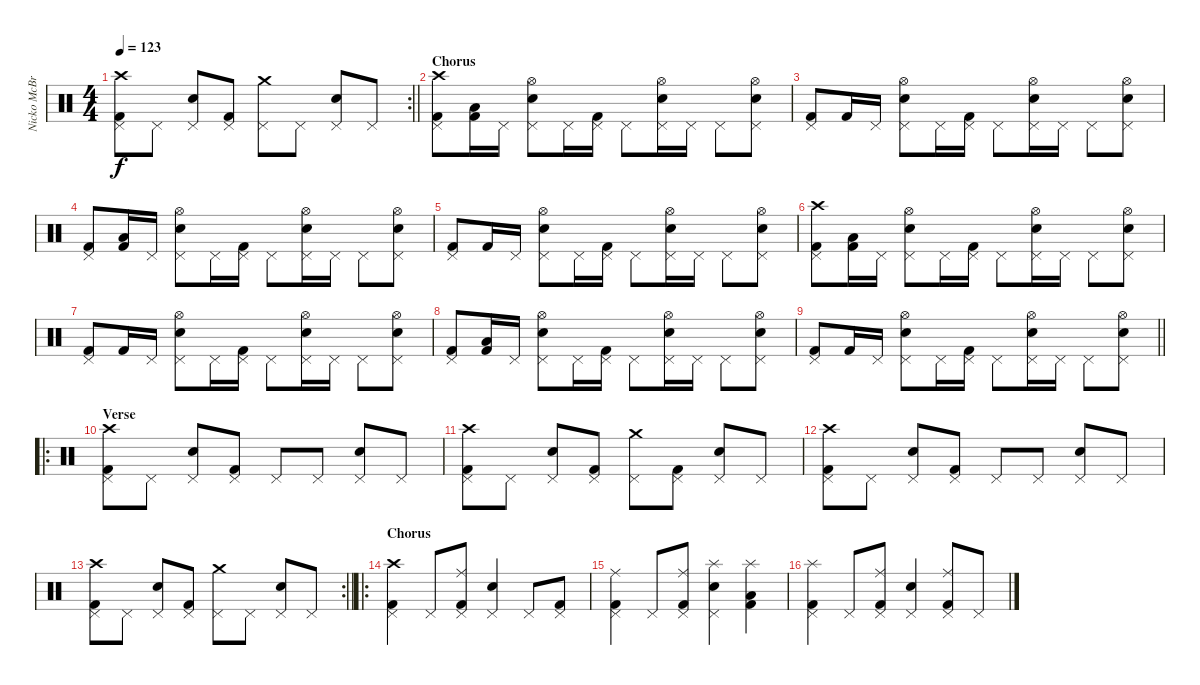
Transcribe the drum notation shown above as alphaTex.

\track ("Nicko McBrain" "Nicko McBr") {instrument percussion}
\staff {score}
\articulation defaults
\rc 2
\ts (4 4)
\tempo 123
\clef neutral
\barLineRight lightlight
\ks c
("Kick (hit) 2" "Pedal Hi-Hat (hit)" "Crash high (hit)").8{dy f} "Pedal Hi-Hat (hit)".8 ("Snare (hit) 2" "Pedal Hi-Hat (hit)").8 ("Kick (hit) 2" "Pedal Hi-Hat (hit)").8 ("Pedal Hi-Hat (hit)" "Crash medium (hit)").8 "Pedal Hi-Hat (hit)".8 ("Snare (hit) 2" "Pedal Hi-Hat (hit)").8 "Pedal Hi-Hat (hit)".8 |
\section ("" "Chorus")
("Kick (hit) 2" "Pedal Hi-Hat (hit)" "Crash high (hit)").8 ("Kick (hit) 2" "Low Tom (hit)").16 "Pedal Hi-Hat (hit)".16 ("Snare (hit) 2" "Pedal Hi-Hat (hit)" "Hi-Hat (open)").8 "Pedal Hi-Hat (hit)".16 ("Kick (hit) 2" "Pedal Hi-Hat (hit)").16 "Pedal Hi-Hat (hit)".8 ("Snare (hit) 2" "Pedal Hi-Hat (hit)" "Hi-Hat (open)").16 "Pedal Hi-Hat (hit)".16 "Pedal Hi-Hat (hit)".8 ("Snare (hit) 2" "Pedal Hi-Hat (hit)" "Hi-Hat (open)").8 |
("Kick (hit) 2" "Pedal Hi-Hat (hit)").8 "Kick (hit) 2".16 "Pedal Hi-Hat (hit)".16 ("Snare (hit) 2" "Pedal Hi-Hat (hit)" "Hi-Hat (open)").8 "Pedal Hi-Hat (hit)".16 ("Kick (hit) 2" "Pedal Hi-Hat (hit)").16 "Pedal Hi-Hat (hit)".8 ("Snare (hit) 2" "Pedal Hi-Hat (hit)" "Hi-Hat (open)").16 "Pedal Hi-Hat (hit)".16 "Pedal Hi-Hat (hit)".8 ("Snare (hit) 2" "Pedal Hi-Hat (hit)" "Hi-Hat (open)").8 |
("Kick (hit) 2" "Pedal Hi-Hat (hit)").8 ("Kick (hit) 2" "Low Tom (hit)").16 "Pedal Hi-Hat (hit)".16 ("Snare (hit) 2" "Pedal Hi-Hat (hit)" "Hi-Hat (open)").8 "Pedal Hi-Hat (hit)".16 ("Kick (hit) 2" "Pedal Hi-Hat (hit)").16 "Pedal Hi-Hat (hit)".8 ("Snare (hit) 2" "Pedal Hi-Hat (hit)" "Hi-Hat (open)").16 "Pedal Hi-Hat (hit)".16 "Pedal Hi-Hat (hit)".8 ("Snare (hit) 2" "Pedal Hi-Hat (hit)" "Hi-Hat (open)").8 |
("Kick (hit) 2" "Pedal Hi-Hat (hit)").8 "Kick (hit) 2".16 "Pedal Hi-Hat (hit)".16 ("Snare (hit) 2" "Pedal Hi-Hat (hit)" "Hi-Hat (open)").8 "Pedal Hi-Hat (hit)".16 ("Kick (hit) 2" "Pedal Hi-Hat (hit)").16 "Pedal Hi-Hat (hit)".8 ("Snare (hit) 2" "Pedal Hi-Hat (hit)" "Hi-Hat (open)").16 "Pedal Hi-Hat (hit)".16 "Pedal Hi-Hat (hit)".8 ("Snare (hit) 2" "Pedal Hi-Hat (hit)" "Hi-Hat (open)").8 |
("Kick (hit) 2" "Pedal Hi-Hat (hit)" "Crash high (hit)").8 ("Kick (hit) 2" "Low Tom (hit)").16 "Pedal Hi-Hat (hit)".16 ("Snare (hit) 2" "Pedal Hi-Hat (hit)" "Hi-Hat (open)").8 "Pedal Hi-Hat (hit)".16 ("Kick (hit) 2" "Pedal Hi-Hat (hit)").16 "Pedal Hi-Hat (hit)".8 ("Snare (hit) 2" "Pedal Hi-Hat (hit)" "Hi-Hat (open)").16 "Pedal Hi-Hat (hit)".16 "Pedal Hi-Hat (hit)".8 ("Snare (hit) 2" "Pedal Hi-Hat (hit)" "Hi-Hat (open)").8 |
("Kick (hit) 2" "Pedal Hi-Hat (hit)").8 "Kick (hit) 2".16 "Pedal Hi-Hat (hit)".16 ("Snare (hit) 2" "Pedal Hi-Hat (hit)" "Hi-Hat (open)").8 "Pedal Hi-Hat (hit)".16 ("Kick (hit) 2" "Pedal Hi-Hat (hit)").16 "Pedal Hi-Hat (hit)".8 ("Snare (hit) 2" "Pedal Hi-Hat (hit)" "Hi-Hat (open)").16 "Pedal Hi-Hat (hit)".16 "Pedal Hi-Hat (hit)".8 ("Snare (hit) 2" "Pedal Hi-Hat (hit)" "Hi-Hat (open)").8 |
("Kick (hit) 2" "Pedal Hi-Hat (hit)").8 ("Kick (hit) 2" "Low Tom (hit)").16 "Pedal Hi-Hat (hit)".16 ("Snare (hit) 2" "Pedal Hi-Hat (hit)" "Hi-Hat (open)").8 "Pedal Hi-Hat (hit)".16 ("Kick (hit) 2" "Pedal Hi-Hat (hit)").16 "Pedal Hi-Hat (hit)".8 ("Snare (hit) 2" "Pedal Hi-Hat (hit)" "Hi-Hat (open)").16 "Pedal Hi-Hat (hit)".16 "Pedal Hi-Hat (hit)".8 ("Snare (hit) 2" "Pedal Hi-Hat (hit)" "Hi-Hat (open)").8 |
\barLineRight lightlight
("Kick (hit) 2" "Pedal Hi-Hat (hit)").8 "Kick (hit) 2".16 "Pedal Hi-Hat (hit)".16 ("Snare (hit) 2" "Pedal Hi-Hat (hit)" "Hi-Hat (open)").8 "Pedal Hi-Hat (hit)".16 ("Kick (hit) 2" "Pedal Hi-Hat (hit)").16 "Pedal Hi-Hat (hit)".8 ("Snare (hit) 2" "Pedal Hi-Hat (hit)" "Hi-Hat (open)").16 "Pedal Hi-Hat (hit)".16 "Pedal Hi-Hat (hit)".8 ("Snare (hit) 2" "Pedal Hi-Hat (hit)" "Hi-Hat (open)").8 |
\ro
\section ("" "Verse")
("Kick (hit) 2" "Pedal Hi-Hat (hit)" "Crash high (hit)").8 "Pedal Hi-Hat (hit)".8 ("Snare (hit) 2" "Pedal Hi-Hat (hit)").8 ("Kick (hit) 2" "Pedal Hi-Hat (hit)").8 "Pedal Hi-Hat (hit)".8 "Pedal Hi-Hat (hit)".8 ("Snare (hit) 2" "Pedal Hi-Hat (hit)").8 "Pedal Hi-Hat (hit)".8 |
("Kick (hit) 2" "Pedal Hi-Hat (hit)" "Crash high (hit)").8 "Pedal Hi-Hat (hit)".8 ("Snare (hit) 2" "Pedal Hi-Hat (hit)").8 ("Kick (hit) 2" "Pedal Hi-Hat (hit)").8 ("Pedal Hi-Hat (hit)" "Crash medium (hit)").8 ("Kick (hit) 2" "Pedal Hi-Hat (hit)").8 ("Snare (hit) 2" "Pedal Hi-Hat (hit)").8 "Pedal Hi-Hat (hit)".8 |
("Kick (hit) 2" "Pedal Hi-Hat (hit)" "Crash high (hit)").8 "Pedal Hi-Hat (hit)".8 ("Snare (hit) 2" "Pedal Hi-Hat (hit)").8 ("Kick (hit) 2" "Pedal Hi-Hat (hit)").8 "Pedal Hi-Hat (hit)".8 "Pedal Hi-Hat (hit)".8 ("Snare (hit) 2" "Pedal Hi-Hat (hit)").8 "Pedal Hi-Hat (hit)".8 |
\rc 2
\barLineRight lightlight
("Kick (hit) 2" "Pedal Hi-Hat (hit)" "Crash high (hit)").8 "Pedal Hi-Hat (hit)".8 ("Snare (hit) 2" "Pedal Hi-Hat (hit)").8 ("Kick (hit) 2" "Pedal Hi-Hat (hit)").8 ("Pedal Hi-Hat (hit)" "Crash medium (hit)").8 "Pedal Hi-Hat (hit)".8 ("Snare (hit) 2" "Pedal Hi-Hat (hit)").8 "Pedal Hi-Hat (hit)".8 |
\ro
\section ("" "Chorus")
("Kick (hit) 2" "Pedal Hi-Hat (hit)" "Crash high (hit)").4 "Pedal Hi-Hat (hit)".8 ("Kick (hit) 2" "Pedal Hi-Hat (hit)" "Ride (middle)").8 ("Snare (hit) 2" "Pedal Hi-Hat (hit)").4 "Pedal Hi-Hat (hit)".8 ("Kick (hit) 2" "Pedal Hi-Hat (hit)").8 |
("Kick (hit) 2" "Pedal Hi-Hat (hit)" "Ride (middle)").4 "Pedal Hi-Hat (hit)".8 ("Kick (hit) 2" "Pedal Hi-Hat (hit)" "Ride (middle)").8 ("Snare (hit) 2" "Pedal Hi-Hat (hit)" "Splash (hit)").4 ("Kick (hit) 2" "Low Tom (hit)" "Splash (hit)").4 |
("Kick (hit) 2" "Pedal Hi-Hat (hit)" "Splash (hit)").4 "Pedal Hi-Hat (hit)".8 ("Kick (hit) 2" "Pedal Hi-Hat (hit)" "Ride (middle)").8 ("Snare (hit) 2" "Pedal Hi-Hat (hit)").4 ("Kick (hit) 2" "Pedal Hi-Hat (hit)" "Ride (middle)").8 "Pedal Hi-Hat (hit)".8
